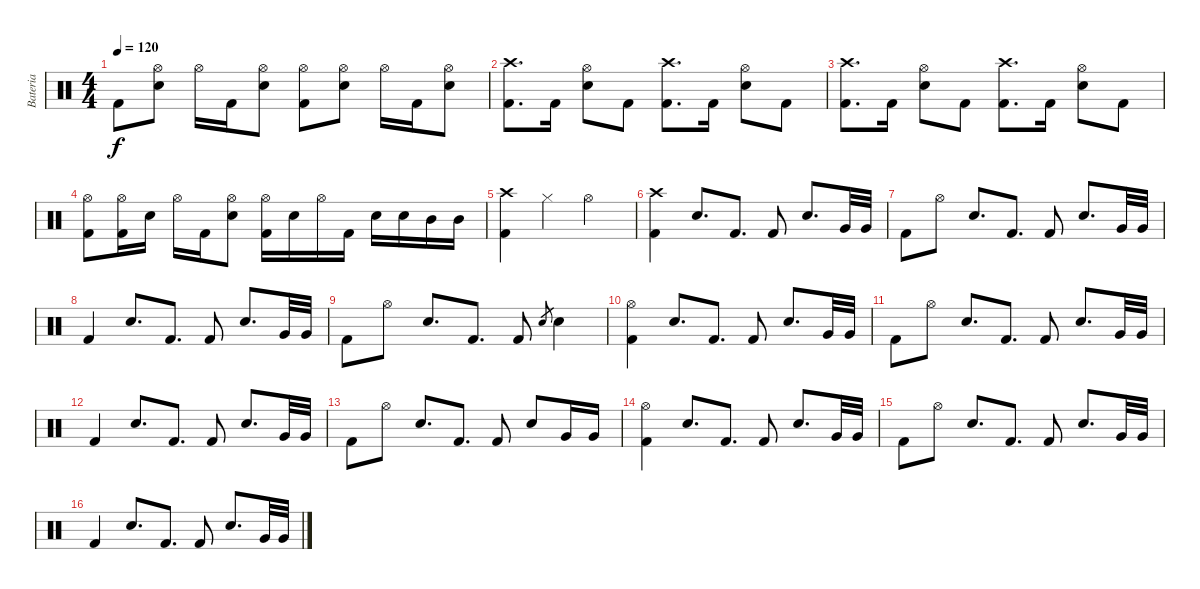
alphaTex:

\track ("Bateria" "Bateria") {instrument percussion}
\staff {score}
\articulation defaults
\ts (4 4)
\tempo 120
\clef neutral
\ks c "Kick (hit) 2".8{dy f}
("Hi-Hat (open)" "Electric Snare (hit)").8 "Hi-Hat (open)".16 "Kick (hit) 2".16 ("Hi-Hat (open)" "Electric Snare (hit)").8 ("Hi-Hat (open)" "Kick (hit) 2").8 ("Hi-Hat (open)" "Electric Snare (hit)").8 "Hi-Hat (open)".16 "Kick (hit) 2".16 ("Hi-Hat (open)" "Electric Snare (hit)").8 |
("Crash high (hit)" "Kick (hit) 2").8{d} "Kick (hit) 2".16 ("Hi-Hat (open)" "Electric Snare (hit)").8 "Kick (hit) 2".8 ("Crash high (hit)" "Kick (hit) 2").8{d} "Kick (hit) 2".16 ("Hi-Hat (open)" "Electric Snare (hit)").8 "Kick (hit) 2".8 |
("Crash high (hit)" "Kick (hit) 2").8{d} "Kick (hit) 2".16 ("Hi-Hat (open)" "Electric Snare (hit)").8 "Kick (hit) 2".8 ("Crash high (hit)" "Kick (hit) 2").8{d} "Kick (hit) 2".16 ("Hi-Hat (open)" "Electric Snare (hit)").8 "Kick (hit) 2".8 |
("Hi-Hat (open)" "Kick (hit) 2").8 ("Hi-Hat (open)" "Kick (hit) 2").16 "Electric Snare (hit)".16 "Hi-Hat (open)".16 "Kick (hit) 2".16 ("Hi-Hat (open)" "Electric Snare (hit)").8 ("Hi-Hat (open)" "Kick (hit) 2").16 "Electric Snare (hit)".16 "Hi-Hat (open)".16 "Kick (hit) 2".16 "Electric Snare (hit)".16 "Electric Snare (hit)".16 "Mid Tom (hit)".16 "Mid Tom (hit)".16 |
("Crash high (hit)" "Kick (hit) 2").4 "Hi-Hat (closed)".4 "Hi-Hat (open)".2 |
("Crash high (hit)" "Kick (hit) 2").4 "Electric Snare (hit)".8{d} "Kick (hit) 2".8{d} "Kick (hit) 2".8 "Electric Snare (hit)".8{d} "Very Low Tom (hit)".32 "Very Low Tom (hit)".32 |
"Kick (hit) 2".8 "Hi-Hat (open)".8 "Electric Snare (hit)".8{d} "Kick (hit) 2".8{d} "Kick (hit) 2".8 "Electric Snare (hit)".8{d} "Very Low Tom (hit)".32 "Very Low Tom (hit)".32 |
"Kick (hit) 2".4 "Electric Snare (hit)".8{d} "Kick (hit) 2".8{d} "Kick (hit) 2".8 "Electric Snare (hit)".8{d} "Very Low Tom (hit)".32 "Very Low Tom (hit)".32 |
"Kick (hit) 2".8 "Hi-Hat (open)".8 "Electric Snare (hit)".8{d} "Kick (hit) 2".8{d} "Kick (hit) 2".8 "Electric Snare (hit)".8{gr} "Electric Snare (hit)".4 |
("Hi-Hat (open)" "Kick (hit) 2").4 "Electric Snare (hit)".8{d} "Kick (hit) 2".8{d} "Kick (hit) 2".8 "Electric Snare (hit)".8{d} "Very Low Tom (hit)".32 "Very Low Tom (hit)".32 |
"Kick (hit) 2".8 "Hi-Hat (open)".8 "Electric Snare (hit)".8{d} "Kick (hit) 2".8{d} "Kick (hit) 2".8 "Electric Snare (hit)".8{d} "Very Low Tom (hit)".32 "Very Low Tom (hit)".32 |
"Kick (hit) 2".4 "Electric Snare (hit)".8{d} "Kick (hit) 2".8{d} "Kick (hit) 2".8 "Electric Snare (hit)".8{d} "Very Low Tom (hit)".32 "Very Low Tom (hit)".32 |
"Kick (hit) 2".8 "Hi-Hat (open)".8 "Electric Snare (hit)".8{d} "Kick (hit) 2".8{d} "Kick (hit) 2".8 "Electric Snare (hit)".8 "Very Low Tom (hit)".16 "Very Low Tom (hit)".16 |
("Hi-Hat (open)" "Kick (hit) 2").4 "Electric Snare (hit)".8{d} "Kick (hit) 2".8{d} "Kick (hit) 2".8 "Electric Snare (hit)".8{d} "Very Low Tom (hit)".32 "Very Low Tom (hit)".32 |
"Kick (hit) 2".8 "Hi-Hat (open)".8 "Electric Snare (hit)".8{d} "Kick (hit) 2".8{d} "Kick (hit) 2".8 "Electric Snare (hit)".8{d} "Very Low Tom (hit)".32 "Very Low Tom (hit)".32 |
"Kick (hit) 2".4 "Electric Snare (hit)".8{d} "Kick (hit) 2".8{d} "Kick (hit) 2".8 "Electric Snare (hit)".8{d} "Very Low Tom (hit)".32 "Very Low Tom (hit)".32
